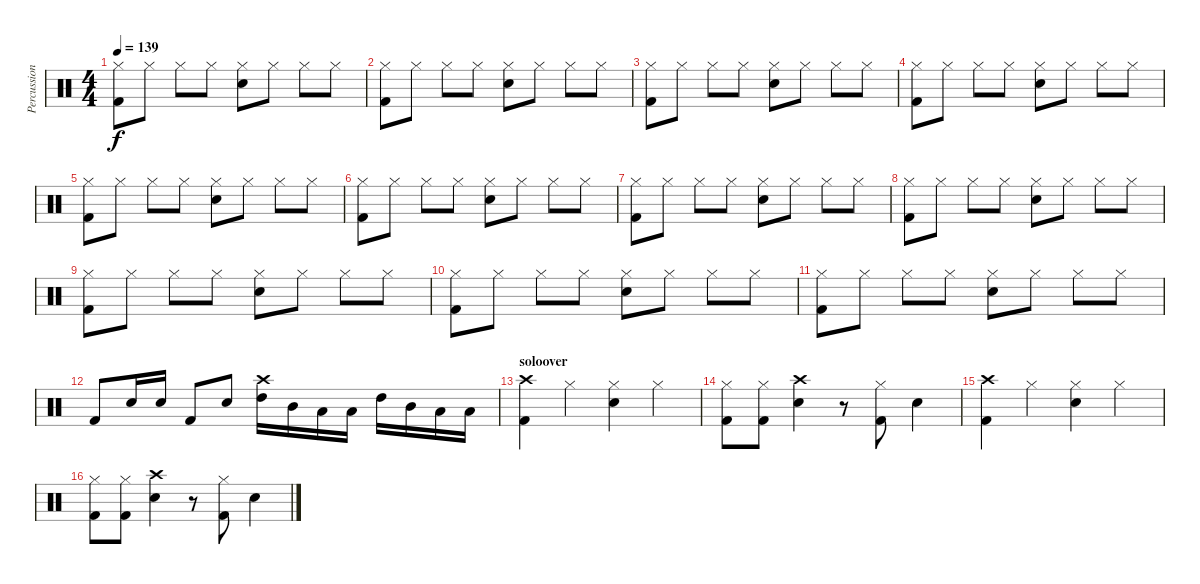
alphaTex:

\track ("Percussion" "Percussion") {instrument percussion}
\staff {score}
\articulation defaults
\ts (4 4)
\tempo 139
\clef neutral
\ks c
("Hi-Hat (closed)" "Kick (hit) 2").8{dy f} "Hi-Hat (closed)".8 "Hi-Hat (closed)".8 "Hi-Hat (closed)".8 ("Hi-Hat (closed)" "Snare (hit) 2").8 "Hi-Hat (closed)".8 "Hi-Hat (closed)".8 "Hi-Hat (closed)".8 |
("Hi-Hat (closed)" "Kick (hit) 2").8 "Hi-Hat (closed)".8 "Hi-Hat (closed)".8 "Hi-Hat (closed)".8 ("Hi-Hat (closed)" "Snare (hit) 2").8 "Hi-Hat (closed)".8 "Hi-Hat (closed)".8 "Hi-Hat (closed)".8 |
("Hi-Hat (closed)" "Kick (hit) 2").8 "Hi-Hat (closed)".8 "Hi-Hat (closed)".8 "Hi-Hat (closed)".8 ("Hi-Hat (closed)" "Snare (hit) 2").8 "Hi-Hat (closed)".8 "Hi-Hat (closed)".8 "Hi-Hat (closed)".8 |
("Hi-Hat (closed)" "Kick (hit) 2").8 "Hi-Hat (closed)".8 "Hi-Hat (closed)".8 "Hi-Hat (closed)".8 ("Hi-Hat (closed)" "Snare (hit) 2").8 "Hi-Hat (closed)".8 "Hi-Hat (closed)".8 "Hi-Hat (closed)".8 |
("Hi-Hat (closed)" "Kick (hit) 2").8 "Hi-Hat (closed)".8 "Hi-Hat (closed)".8 "Hi-Hat (closed)".8 ("Hi-Hat (closed)" "Snare (hit) 2").8 "Hi-Hat (closed)".8 "Hi-Hat (closed)".8 "Hi-Hat (closed)".8 |
("Hi-Hat (closed)" "Kick (hit) 2").8 "Hi-Hat (closed)".8 "Hi-Hat (closed)".8 "Hi-Hat (closed)".8 ("Hi-Hat (closed)" "Snare (hit) 2").8 "Hi-Hat (closed)".8 "Hi-Hat (closed)".8 "Hi-Hat (closed)".8 |
("Hi-Hat (closed)" "Kick (hit) 2").8 "Hi-Hat (closed)".8 "Hi-Hat (closed)".8 "Hi-Hat (closed)".8 ("Hi-Hat (closed)" "Snare (hit) 2").8 "Hi-Hat (closed)".8 "Hi-Hat (closed)".8 "Hi-Hat (closed)".8 |
("Hi-Hat (closed)" "Kick (hit) 2").8 "Hi-Hat (closed)".8 "Hi-Hat (closed)".8 "Hi-Hat (closed)".8 ("Hi-Hat (closed)" "Snare (hit) 2").8 "Hi-Hat (closed)".8 "Hi-Hat (closed)".8 "Hi-Hat (closed)".8 |
("Hi-Hat (closed)" "Kick (hit) 2").8 "Hi-Hat (closed)".8 "Hi-Hat (closed)".8 "Hi-Hat (closed)".8 ("Hi-Hat (closed)" "Snare (hit) 2").8 "Hi-Hat (closed)".8 "Hi-Hat (closed)".8 "Hi-Hat (closed)".8 |
("Hi-Hat (closed)" "Kick (hit) 2").8 "Hi-Hat (closed)".8 "Hi-Hat (closed)".8 "Hi-Hat (closed)".8 ("Hi-Hat (closed)" "Snare (hit) 2").8 "Hi-Hat (closed)".8 "Hi-Hat (closed)".8 "Hi-Hat (closed)".8 |
("Hi-Hat (closed)" "Kick (hit) 2").8 "Hi-Hat (closed)".8 "Hi-Hat (closed)".8 "Hi-Hat (closed)".8 ("Hi-Hat (closed)" "Snare (hit) 2").8 "Hi-Hat (closed)".8 "Hi-Hat (closed)".8 "Hi-Hat (closed)".8 |
"Kick (hit) 2".8 "Snare (hit) 2".16 "Snare (hit) 2".16 "Kick (hit) 2".8 "Snare (hit) 2".8 ("Crash high (hit)" "High Tom (hit)").16 "Mid Tom (hit)".16 "Low Tom (hit)".16 "Low Tom (hit)".16 "High Tom (hit)".16 "Mid Tom (hit)".16 "Low Tom (hit)".16 "Low Tom (hit)".16 |
\section ("" "soloover")
("Crash high (hit)" "Kick (hit) 2").4 "Hi-Hat (closed)".4 ("Hi-Hat (closed)" "Snare (hit) 2").4 "Hi-Hat (closed)".4 |
("Hi-Hat (closed)" "Kick (hit) 2").8 ("Hi-Hat (closed)" "Kick (hit) 2").8 ("Crash high (hit)" "Snare (hit) 2").4 r.8 ("Hi-Hat (closed)" "Kick (hit) 2").8 "Snare (hit) 2".4 |
("Crash high (hit)" "Kick (hit) 2").4 "Hi-Hat (closed)".4 ("Hi-Hat (closed)" "Snare (hit) 2").4 "Hi-Hat (closed)".4 |
("Hi-Hat (closed)" "Kick (hit) 2").8 ("Hi-Hat (closed)" "Kick (hit) 2").8 ("Crash high (hit)" "Snare (hit) 2").4 r.8 ("Hi-Hat (closed)" "Kick (hit) 2").8 "Snare (hit) 2".4
